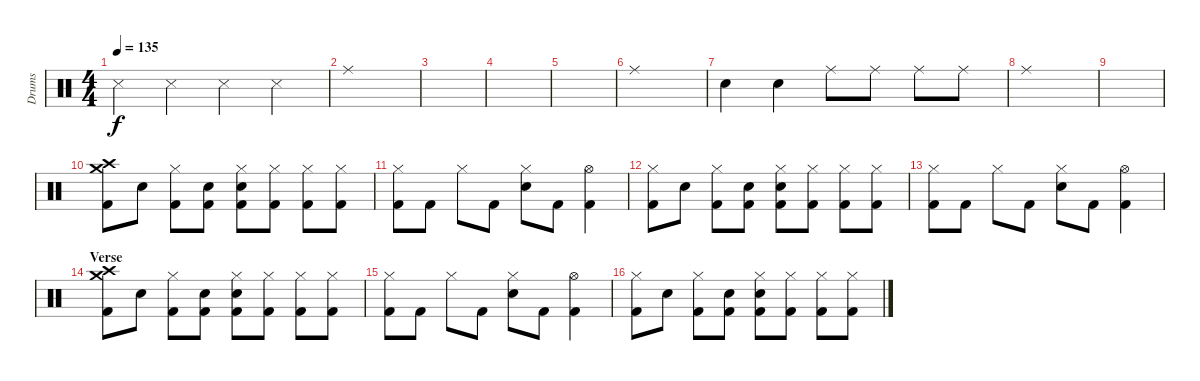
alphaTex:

\track ("Drums" "Drums") {instrument percussion}
\staff {score}
\articulation defaults
\ts (4 4)
\tempo 135
\clef neutral
\ks c "Snare (side stick) 3".4{dy f} "Snare (side stick) 3".4 "Snare (side stick) 3".4 "Snare (side stick) 3".4
|
"Ride (middle)".1 |
|
|
|
"Ride (middle)".1 |
"Snare (hit)"{x}.4 "Snare (hit)"{x}.4 "Ride (middle)"{x}.8 "Ride (middle)"{x}.8 "Ride (middle)".8 "Ride (middle)".8 |
"Ride (middle)".1 |
|
("Crash high (hit)" "Crash medium (hit)" "Kick (hit) 2").8 "Snare (hit)"{x}.8 ("Hi-Hat (closed)" "Kick (hit) 2"{x}).8 ("Electric Snare (hit)"{x} "Kick (hit) 2").8 ("Hi-Hat (closed)" "Electric Snare (hit)" "Kick (hit) 2"{x}).8 ("Hi-Hat (closed)"{x} "Kick (hit) 2"{x}).8 ("Hi-Hat (closed)" "Kick (hit) 2").8 ("Hi-Hat (closed)"{x} "Kick (hit) 2").8 |
("Hi-Hat (closed)" "Kick (hit) 2"{x}).8 "Kick (hit) 2"{x}.8 "Hi-Hat (closed)".8 "Kick (hit) 2".8 ("Hi-Hat (closed)" "Electric Snare (hit)").8 "Kick (hit) 2".8 ("Hi-Hat (open)" "Kick (hit) 2"{x}).4 |
("Hi-Hat (closed)" "Kick (hit) 2").8 "Snare (hit)"{x}.8 ("Hi-Hat (closed)" "Kick (hit) 2"{x}).8 ("Electric Snare (hit)"{x} "Kick (hit) 2").8 ("Hi-Hat (closed)" "Electric Snare (hit)" "Kick (hit) 2"{x}).8 ("Hi-Hat (closed)"{x} "Kick (hit) 2"{x}).8 ("Hi-Hat (closed)" "Kick (hit) 2").8 ("Hi-Hat (closed)"{x} "Kick (hit) 2").8 |
("Hi-Hat (closed)" "Kick (hit) 2"{x}).8 "Kick (hit) 2"{x}.8 "Hi-Hat (closed)".8 "Kick (hit) 2".8 ("Hi-Hat (closed)" "Electric Snare (hit)").8 "Kick (hit) 2".8 ("Hi-Hat (open)" "Kick (hit) 2"{x}).4 |
\section ("" "Verse")
("Crash high (hit)" "Crash medium (hit)" "Kick (hit) 2").8 "Snare (hit)"{x}.8 ("Hi-Hat (closed)" "Kick (hit) 2"{x}).8 ("Electric Snare (hit)"{x} "Kick (hit) 2").8 ("Hi-Hat (closed)" "Electric Snare (hit)" "Kick (hit) 2"{x}).8 ("Hi-Hat (closed)"{x} "Kick (hit) 2"{x}).8 ("Hi-Hat (closed)" "Kick (hit) 2").8 ("Hi-Hat (closed)"{x} "Kick (hit) 2").8 |
("Hi-Hat (closed)" "Kick (hit) 2"{x}).8 "Kick (hit) 2"{x}.8 "Hi-Hat (closed)".8 "Kick (hit) 2".8 ("Hi-Hat (closed)" "Electric Snare (hit)").8 "Kick (hit) 2".8 ("Hi-Hat (open)" "Kick (hit) 2"{x}).4 |
("Hi-Hat (closed)" "Kick (hit) 2").8 "Snare (hit)"{x}.8 ("Hi-Hat (closed)" "Kick (hit) 2"{x}).8 ("Electric Snare (hit)"{x} "Kick (hit) 2").8 ("Hi-Hat (closed)" "Electric Snare (hit)" "Kick (hit) 2"{x}).8 ("Hi-Hat (closed)"{x} "Kick (hit) 2"{x}).8 ("Hi-Hat (closed)" "Kick (hit) 2").8 ("Hi-Hat (closed)"{x} "Kick (hit) 2").8
